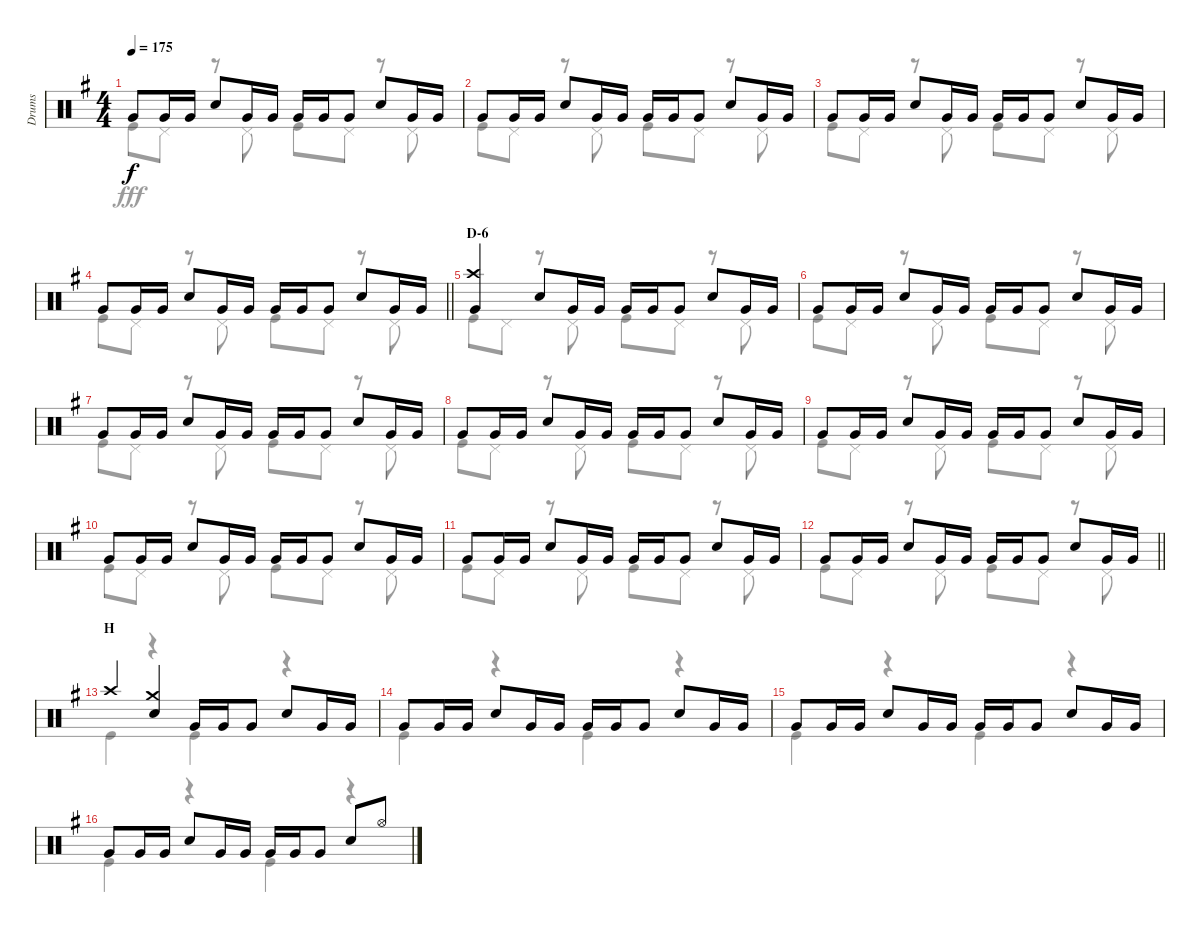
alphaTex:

\track ("Drums" "Drums") {instrument percussion}
\staff {score}
\articulation defaults
\voice
\ts (4 4)
\tempo 175
\clef neutral
\ks g "Very Low Tom (hit)".8{dy f} "Very Low Tom (hit)".16 "Very Low Tom (hit)".16 "Snare (hit) 2".8 "Very Low Tom (hit)".16 "Very Low Tom (hit)".16 "Very Low Tom (hit)".16 "Very Low Tom (hit)".16 "Very Low Tom (hit)".8 "Snare (hit) 2".8 "Very Low Tom (hit)".16 "Very Low Tom (hit)".16
|
"Very Low Tom (hit)".8 "Very Low Tom (hit)".16 "Very Low Tom (hit)".16 "Snare (hit) 2".8 "Very Low Tom (hit)".16 "Very Low Tom (hit)".16 "Very Low Tom (hit)".16 "Very Low Tom (hit)".16 "Very Low Tom (hit)".8 "Snare (hit) 2".8 "Very Low Tom (hit)".16 "Very Low Tom (hit)".16 |
"Very Low Tom (hit)".8 "Very Low Tom (hit)".16 "Very Low Tom (hit)".16 "Snare (hit) 2".8 "Very Low Tom (hit)".16 "Very Low Tom (hit)".16 "Very Low Tom (hit)".16 "Very Low Tom (hit)".16 "Very Low Tom (hit)".8 "Snare (hit) 2".8 "Very Low Tom (hit)".16 "Very Low Tom (hit)".16 |
\barLineRight lightlight "Very Low Tom (hit)".8 "Very Low Tom (hit)".16 "Very Low Tom (hit)".16 "Snare (hit) 2".8 "Very Low Tom (hit)".16 "Very Low Tom (hit)".16 "Very Low Tom (hit)".16 "Very Low Tom (hit)".16 "Very Low Tom (hit)".8 "Snare (hit) 2".8 "Very Low Tom (hit)".16 "Very Low Tom (hit)".16
|
\section ("" "D-6")
("Crash high (hit)" "Very Low Tom (hit)").4 "Snare (hit) 2".8 "Very Low Tom (hit)".16 "Very Low Tom (hit)".16 "Very Low Tom (hit)".16 "Very Low Tom (hit)".16 "Very Low Tom (hit)".8 "Snare (hit) 2".8 "Very Low Tom (hit)".16 "Very Low Tom (hit)".16 |
"Very Low Tom (hit)".8 "Very Low Tom (hit)".16 "Very Low Tom (hit)".16 "Snare (hit) 2".8 "Very Low Tom (hit)".16 "Very Low Tom (hit)".16 "Very Low Tom (hit)".16 "Very Low Tom (hit)".16 "Very Low Tom (hit)".8 "Snare (hit) 2".8 "Very Low Tom (hit)".16 "Very Low Tom (hit)".16 |
"Very Low Tom (hit)".8 "Very Low Tom (hit)".16 "Very Low Tom (hit)".16 "Snare (hit) 2".8 "Very Low Tom (hit)".16 "Very Low Tom (hit)".16 "Very Low Tom (hit)".16 "Very Low Tom (hit)".16 "Very Low Tom (hit)".8 "Snare (hit) 2".8 "Very Low Tom (hit)".16 "Very Low Tom (hit)".16 |
"Very Low Tom (hit)".8 "Very Low Tom (hit)".16 "Very Low Tom (hit)".16 "Snare (hit) 2".8 "Very Low Tom (hit)".16 "Very Low Tom (hit)".16 "Very Low Tom (hit)".16 "Very Low Tom (hit)".16 "Very Low Tom (hit)".8 "Snare (hit) 2".8 "Very Low Tom (hit)".16 "Very Low Tom (hit)".16 |
"Very Low Tom (hit)".8 "Very Low Tom (hit)".16 "Very Low Tom (hit)".16 "Snare (hit) 2".8 "Very Low Tom (hit)".16 "Very Low Tom (hit)".16 "Very Low Tom (hit)".16 "Very Low Tom (hit)".16 "Very Low Tom (hit)".8 "Snare (hit) 2".8 "Very Low Tom (hit)".16 "Very Low Tom (hit)".16 |
"Very Low Tom (hit)".8 "Very Low Tom (hit)".16 "Very Low Tom (hit)".16 "Snare (hit) 2".8 "Very Low Tom (hit)".16 "Very Low Tom (hit)".16 "Very Low Tom (hit)".16 "Very Low Tom (hit)".16 "Very Low Tom (hit)".8 "Snare (hit) 2".8 "Very Low Tom (hit)".16 "Very Low Tom (hit)".16 |
"Very Low Tom (hit)".8 "Very Low Tom (hit)".16 "Very Low Tom (hit)".16 "Snare (hit) 2".8 "Very Low Tom (hit)".16 "Very Low Tom (hit)".16 "Very Low Tom (hit)".16 "Very Low Tom (hit)".16 "Very Low Tom (hit)".8 "Snare (hit) 2".8 "Very Low Tom (hit)".16 "Very Low Tom (hit)".16 |
\barLineRight lightlight "Very Low Tom (hit)".8 "Very Low Tom (hit)".16 "Very Low Tom (hit)".16 "Snare (hit) 2".8 "Very Low Tom (hit)".16 "Very Low Tom (hit)".16 "Very Low Tom (hit)".16 "Very Low Tom (hit)".16 "Very Low Tom (hit)".8 "Snare (hit) 2".8 "Very Low Tom (hit)".16 "Very Low Tom (hit)".16
|
\section ("" "H")
"Crash high (hit)".4 ("Crash medium (hit)" "Snare (hit) 2").4 "Very Low Tom (hit)".16 "Very Low Tom (hit)".16 "Very Low Tom (hit)".8 "Snare (hit) 2".8 "Very Low Tom (hit)".16 "Very Low Tom (hit)".16 |
"Very Low Tom (hit)".8 "Very Low Tom (hit)".16 "Very Low Tom (hit)".16 "Snare (hit) 2".8 "Very Low Tom (hit)".16 "Very Low Tom (hit)".16 "Very Low Tom (hit)".16 "Very Low Tom (hit)".16 "Very Low Tom (hit)".8 "Snare (hit) 2".8 "Very Low Tom (hit)".16 "Very Low Tom (hit)".16 |
"Very Low Tom (hit)".8 "Very Low Tom (hit)".16 "Very Low Tom (hit)".16 "Snare (hit) 2".8 "Very Low Tom (hit)".16 "Very Low Tom (hit)".16 "Very Low Tom (hit)".16 "Very Low Tom (hit)".16 "Very Low Tom (hit)".8 "Snare (hit) 2".8 "Very Low Tom (hit)".16 "Very Low Tom (hit)".16 |
"Very Low Tom (hit)".8 "Very Low Tom (hit)".16 "Very Low Tom (hit)".16 "Snare (hit) 2".8 "Very Low Tom (hit)".16 "Very Low Tom (hit)".16 "Very Low Tom (hit)".16 "Very Low Tom (hit)".16 "Very Low Tom (hit)".8 "Snare (hit) 2".8 "Hi-Hat (open)".8
\voice
\clef neutral
\ottava regular
\simile none
\ks g "Kick (hit)".8{dy fff} "Pedal Hi-Hat (hit)".8
r.8 "Pedal Hi-Hat (hit)".8 "Kick (hit)".8 "Pedal Hi-Hat (hit)".8 r.8 "Pedal Hi-Hat (hit)".8 |
"Kick (hit)".8 "Pedal Hi-Hat (hit)".8 r.8 "Pedal Hi-Hat (hit)".8 "Kick (hit)".8 "Pedal Hi-Hat (hit)".8 r.8 "Pedal Hi-Hat (hit)".8 |
"Kick (hit)".8 "Pedal Hi-Hat (hit)".8 r.8 "Pedal Hi-Hat (hit)".8 "Kick (hit)".8 "Pedal Hi-Hat (hit)".8 r.8 "Pedal Hi-Hat (hit)".8 |
\barLineRight lightlight "Kick (hit)".8 "Pedal Hi-Hat (hit)".8
r.8 "Pedal Hi-Hat (hit)".8 "Kick (hit)".8 "Pedal Hi-Hat (hit)".8 r.8 "Pedal Hi-Hat (hit)".8 |
"Kick (hit)".8 "Pedal Hi-Hat (hit)".8 r.8 "Pedal Hi-Hat (hit)".8 "Kick (hit)".8 "Pedal Hi-Hat (hit)".8 r.8 "Pedal Hi-Hat (hit)".8 |
"Kick (hit)".8 "Pedal Hi-Hat (hit)".8 r.8 "Pedal Hi-Hat (hit)".8 "Kick (hit)".8 "Pedal Hi-Hat (hit)".8 r.8 "Pedal Hi-Hat (hit)".8 |
"Kick (hit)".8 "Pedal Hi-Hat (hit)".8 r.8 "Pedal Hi-Hat (hit)".8 "Kick (hit)".8 "Pedal Hi-Hat (hit)".8 r.8 "Pedal Hi-Hat (hit)".8 |
"Kick (hit)".8 "Pedal Hi-Hat (hit)".8 r.8 "Pedal Hi-Hat (hit)".8 "Kick (hit)".8 "Pedal Hi-Hat (hit)".8 r.8 "Pedal Hi-Hat (hit)".8 |
"Kick (hit)".8 "Pedal Hi-Hat (hit)".8 r.8 "Pedal Hi-Hat (hit)".8 "Kick (hit)".8 "Pedal Hi-Hat (hit)".8 r.8 "Pedal Hi-Hat (hit)".8 |
"Kick (hit)".8 "Pedal Hi-Hat (hit)".8 r.8 "Pedal Hi-Hat (hit)".8 "Kick (hit)".8 "Pedal Hi-Hat (hit)".8 r.8 "Pedal Hi-Hat (hit)".8 |
"Kick (hit)".8 "Pedal Hi-Hat (hit)".8 r.8 "Pedal Hi-Hat (hit)".8 "Kick (hit)".8 "Pedal Hi-Hat (hit)".8 r.8 "Pedal Hi-Hat (hit)".8 |
\barLineRight lightlight "Kick (hit)".8 "Pedal Hi-Hat (hit)".8
r.8 "Pedal Hi-Hat (hit)".8 "Kick (hit)".8 "Pedal Hi-Hat (hit)".8 r.8 "Pedal Hi-Hat (hit)".8 |
"Kick (hit)".4 r.4 "Kick (hit)".4 r.4 |
"Kick (hit)".4 r.4 "Kick (hit)".4 r.4 |
"Kick (hit)".4 r.4 "Kick (hit)".4 r.4 |
"Kick (hit)".4 r.4 "Kick (hit)".4 r.4
